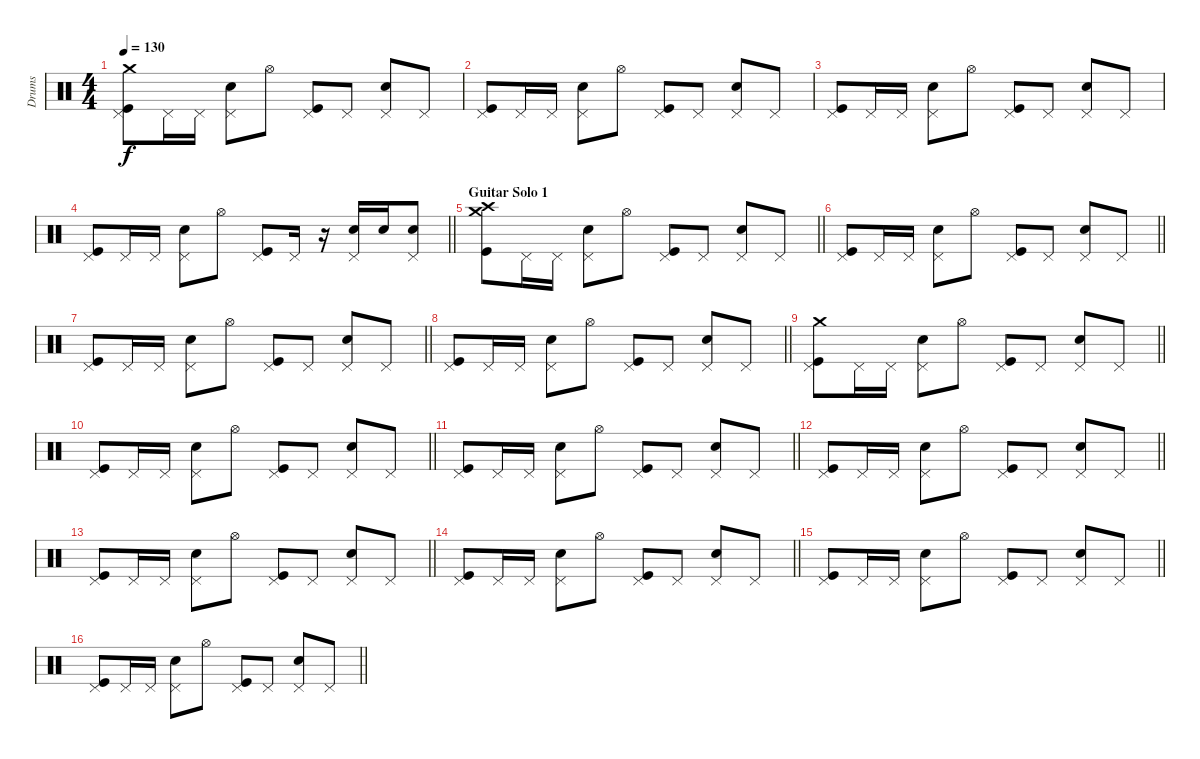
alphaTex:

\track ("Drums" "Drums") {instrument percussion}
\staff {score}
\articulation defaults
\ts (4 4)
\tempo 130
\clef neutral
\ks c
("Pedal Hi-Hat (hit)" "Kick (hit)" "Crash medium (hit)").8{dy f} "Pedal Hi-Hat (hit)".16 "Pedal Hi-Hat (hit)".16 ("Pedal Hi-Hat (hit)" "Snare (hit) 2").8 "Hi-Hat (open)".8 ("Pedal Hi-Hat (hit)" "Kick (hit)").8 "Pedal Hi-Hat (hit)".8 ("Pedal Hi-Hat (hit)" "Snare (hit) 2").8 "Pedal Hi-Hat (hit)".8 |
("Pedal Hi-Hat (hit)" "Kick (hit)").8 "Pedal Hi-Hat (hit)".16 "Pedal Hi-Hat (hit)".16 ("Pedal Hi-Hat (hit)" "Snare (hit) 2").8 "Hi-Hat (open)".8 ("Pedal Hi-Hat (hit)" "Kick (hit)").8 "Pedal Hi-Hat (hit)".8 ("Pedal Hi-Hat (hit)" "Snare (hit) 2").8 "Pedal Hi-Hat (hit)".8 |
("Pedal Hi-Hat (hit)" "Kick (hit)").8 "Pedal Hi-Hat (hit)".16 "Pedal Hi-Hat (hit)".16 ("Pedal Hi-Hat (hit)" "Snare (hit) 2").8 "Hi-Hat (open)".8 ("Pedal Hi-Hat (hit)" "Kick (hit)").8 "Pedal Hi-Hat (hit)".8 ("Pedal Hi-Hat (hit)" "Snare (hit) 2").8 "Pedal Hi-Hat (hit)".8 |
\barLineRight lightlight
("Pedal Hi-Hat (hit)" "Kick (hit)").8 "Pedal Hi-Hat (hit)".16 "Pedal Hi-Hat (hit)".16 ("Pedal Hi-Hat (hit)" "Snare (hit) 2").8 "Hi-Hat (open)".8 ("Pedal Hi-Hat (hit)" "Kick (hit)").8 "Pedal Hi-Hat (hit)".16 r.16 ("Pedal Hi-Hat (hit)" "Snare (hit) 2").16 "Snare (hit) 2".16 ("Pedal Hi-Hat (hit)" "Snare (hit) 2").8 |
\section ("" "Guitar Solo 1")
\barLineRight lightlight
("Kick (hit)" "Crash medium (hit)" "Crash high (hit)").8 "Pedal Hi-Hat (hit)".16 "Pedal Hi-Hat (hit)".16 ("Pedal Hi-Hat (hit)" "Snare (hit) 2").8 "Hi-Hat (open)".8 ("Pedal Hi-Hat (hit)" "Kick (hit)").8 "Pedal Hi-Hat (hit)".8 ("Pedal Hi-Hat (hit)" "Snare (hit) 2").8 "Pedal Hi-Hat (hit)".8 |
\barLineRight lightlight
("Pedal Hi-Hat (hit)" "Kick (hit)").8 "Pedal Hi-Hat (hit)".16 "Pedal Hi-Hat (hit)".16 ("Pedal Hi-Hat (hit)" "Snare (hit) 2").8 "Hi-Hat (open)".8 ("Pedal Hi-Hat (hit)" "Kick (hit)").8 "Pedal Hi-Hat (hit)".8 ("Pedal Hi-Hat (hit)" "Snare (hit) 2").8 "Pedal Hi-Hat (hit)".8 |
\barLineRight lightlight
("Pedal Hi-Hat (hit)" "Kick (hit)").8 "Pedal Hi-Hat (hit)".16 "Pedal Hi-Hat (hit)".16 ("Pedal Hi-Hat (hit)" "Snare (hit) 2").8 "Hi-Hat (open)".8 ("Pedal Hi-Hat (hit)" "Kick (hit)").8 "Pedal Hi-Hat (hit)".8 ("Pedal Hi-Hat (hit)" "Snare (hit) 2").8 "Pedal Hi-Hat (hit)".8 |
\barLineRight lightlight
("Pedal Hi-Hat (hit)" "Kick (hit)").8 "Pedal Hi-Hat (hit)".16 "Pedal Hi-Hat (hit)".16 ("Pedal Hi-Hat (hit)" "Snare (hit) 2").8 "Hi-Hat (open)".8 ("Pedal Hi-Hat (hit)" "Kick (hit)").8 "Pedal Hi-Hat (hit)".8 ("Pedal Hi-Hat (hit)" "Snare (hit) 2").8 "Pedal Hi-Hat (hit)".8 |
\barLineRight lightlight
("Pedal Hi-Hat (hit)" "Kick (hit)" "Crash medium (hit)").8 "Pedal Hi-Hat (hit)".16 "Pedal Hi-Hat (hit)".16 ("Pedal Hi-Hat (hit)" "Snare (hit) 2").8 "Hi-Hat (open)".8 ("Pedal Hi-Hat (hit)" "Kick (hit)").8 "Pedal Hi-Hat (hit)".8 ("Pedal Hi-Hat (hit)" "Snare (hit) 2").8 "Pedal Hi-Hat (hit)".8 |
\barLineRight lightlight
("Pedal Hi-Hat (hit)" "Kick (hit)").8 "Pedal Hi-Hat (hit)".16 "Pedal Hi-Hat (hit)".16 ("Pedal Hi-Hat (hit)" "Snare (hit) 2").8 "Hi-Hat (open)".8 ("Pedal Hi-Hat (hit)" "Kick (hit)").8 "Pedal Hi-Hat (hit)".8 ("Pedal Hi-Hat (hit)" "Snare (hit) 2").8 "Pedal Hi-Hat (hit)".8 |
\barLineRight lightlight
("Pedal Hi-Hat (hit)" "Kick (hit)").8 "Pedal Hi-Hat (hit)".16 "Pedal Hi-Hat (hit)".16 ("Pedal Hi-Hat (hit)" "Snare (hit) 2").8 "Hi-Hat (open)".8 ("Pedal Hi-Hat (hit)" "Kick (hit)").8 "Pedal Hi-Hat (hit)".8 ("Pedal Hi-Hat (hit)" "Snare (hit) 2").8 "Pedal Hi-Hat (hit)".8 |
\barLineRight lightlight
("Pedal Hi-Hat (hit)" "Kick (hit)").8 "Pedal Hi-Hat (hit)".16 "Pedal Hi-Hat (hit)".16 ("Pedal Hi-Hat (hit)" "Snare (hit) 2").8 "Hi-Hat (open)".8 ("Pedal Hi-Hat (hit)" "Kick (hit)").8 "Pedal Hi-Hat (hit)".8 ("Pedal Hi-Hat (hit)" "Snare (hit) 2").8 "Pedal Hi-Hat (hit)".8 |
\barLineRight lightlight
("Pedal Hi-Hat (hit)" "Kick (hit)").8 "Pedal Hi-Hat (hit)".16 "Pedal Hi-Hat (hit)".16 ("Pedal Hi-Hat (hit)" "Snare (hit) 2").8 "Hi-Hat (open)".8 ("Pedal Hi-Hat (hit)" "Kick (hit)").8 "Pedal Hi-Hat (hit)".8 ("Pedal Hi-Hat (hit)" "Snare (hit) 2").8 "Pedal Hi-Hat (hit)".8 |
\barLineRight lightlight
("Pedal Hi-Hat (hit)" "Kick (hit)").8 "Pedal Hi-Hat (hit)".16 "Pedal Hi-Hat (hit)".16 ("Pedal Hi-Hat (hit)" "Snare (hit) 2").8 "Hi-Hat (open)".8 ("Pedal Hi-Hat (hit)" "Kick (hit)").8 "Pedal Hi-Hat (hit)".8 ("Pedal Hi-Hat (hit)" "Snare (hit) 2").8 "Pedal Hi-Hat (hit)".8 |
\barLineRight lightlight
("Pedal Hi-Hat (hit)" "Kick (hit)").8 "Pedal Hi-Hat (hit)".16 "Pedal Hi-Hat (hit)".16 ("Pedal Hi-Hat (hit)" "Snare (hit) 2").8 "Hi-Hat (open)".8 ("Pedal Hi-Hat (hit)" "Kick (hit)").8 "Pedal Hi-Hat (hit)".8 ("Pedal Hi-Hat (hit)" "Snare (hit) 2").8 "Pedal Hi-Hat (hit)".8 |
\barLineRight lightlight
("Pedal Hi-Hat (hit)" "Kick (hit)").8 "Pedal Hi-Hat (hit)".16 "Pedal Hi-Hat (hit)".16 ("Pedal Hi-Hat (hit)" "Snare (hit) 2").8 "Hi-Hat (open)".8 ("Pedal Hi-Hat (hit)" "Kick (hit)").8 "Pedal Hi-Hat (hit)".8 ("Pedal Hi-Hat (hit)" "Snare (hit) 2").8 "Pedal Hi-Hat (hit)".8
